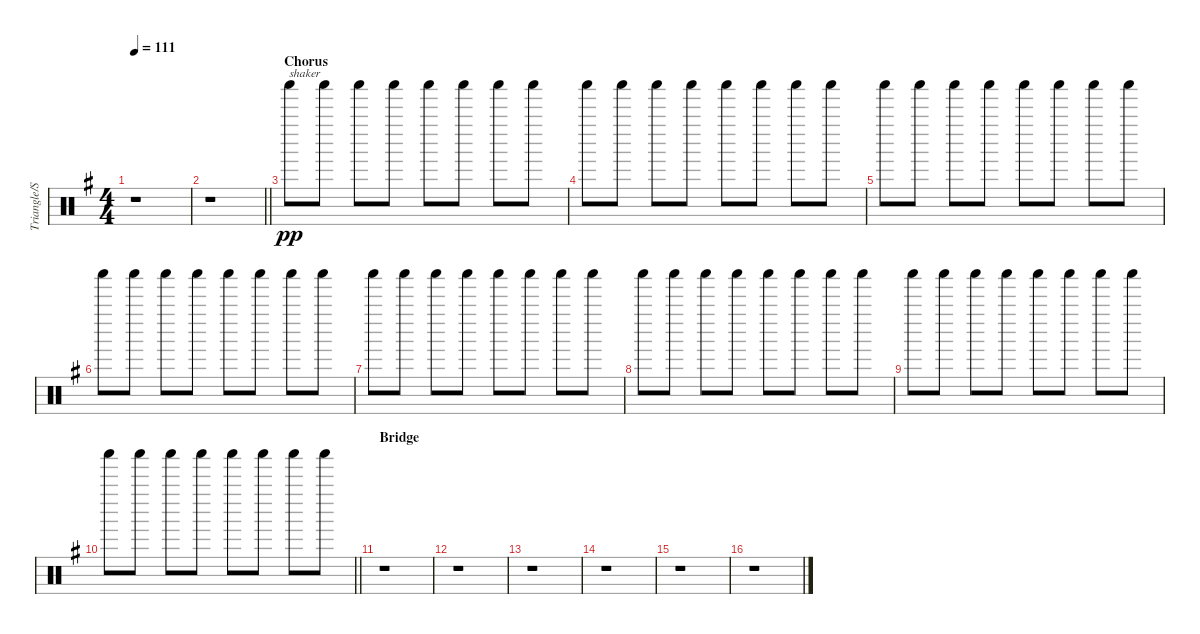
\track ("Triangle/Shaker" "Triangle/S") {instrument percussion}
\staff {score}
\articulation defaults
\ts (4 4)
\tempo 111
\clef neutral
\ks g
r.1{dy ppp} |
\barLineRight lightlight
r.1 |
\section ("" "Chorus")
"Shaker (hit)".8{txt "shaker" dy pp} "Shaker (hit)".8 "Shaker (hit)".8 "Shaker (hit)".8 "Shaker (hit)".8 "Shaker (hit)".8 "Shaker (hit)".8 "Shaker (hit)".8 |
"Shaker (hit)".8 "Shaker (hit)".8 "Shaker (hit)".8 "Shaker (hit)".8 "Shaker (hit)".8 "Shaker (hit)".8 "Shaker (hit)".8 "Shaker (hit)".8 |
"Shaker (hit)".8 "Shaker (hit)".8 "Shaker (hit)".8 "Shaker (hit)".8 "Shaker (hit)".8 "Shaker (hit)".8 "Shaker (hit)".8 "Shaker (hit)".8 |
"Shaker (hit)".8 "Shaker (hit)".8 "Shaker (hit)".8 "Shaker (hit)".8 "Shaker (hit)".8 "Shaker (hit)".8 "Shaker (hit)".8 "Shaker (hit)".8 |
"Shaker (hit)".8 "Shaker (hit)".8 "Shaker (hit)".8 "Shaker (hit)".8 "Shaker (hit)".8 "Shaker (hit)".8 "Shaker (hit)".8 "Shaker (hit)".8 |
"Shaker (hit)".8 "Shaker (hit)".8 "Shaker (hit)".8 "Shaker (hit)".8 "Shaker (hit)".8 "Shaker (hit)".8 "Shaker (hit)".8 "Shaker (hit)".8 |
"Shaker (hit)".8 "Shaker (hit)".8 "Shaker (hit)".8 "Shaker (hit)".8 "Shaker (hit)".8 "Shaker (hit)".8 "Shaker (hit)".8 "Shaker (hit)".8 |
\barLineRight lightlight "Shaker (hit)".8 "Shaker (hit)".8 "Shaker (hit)".8 "Shaker (hit)".8 "Shaker (hit)".8 "Shaker (hit)".8 "Shaker (hit)".8 "Shaker (hit)".8
|
\section ("" "Bridge")
r.1 |
r.1 |
r.1 |
r.1 |
r.1 |
r.1
